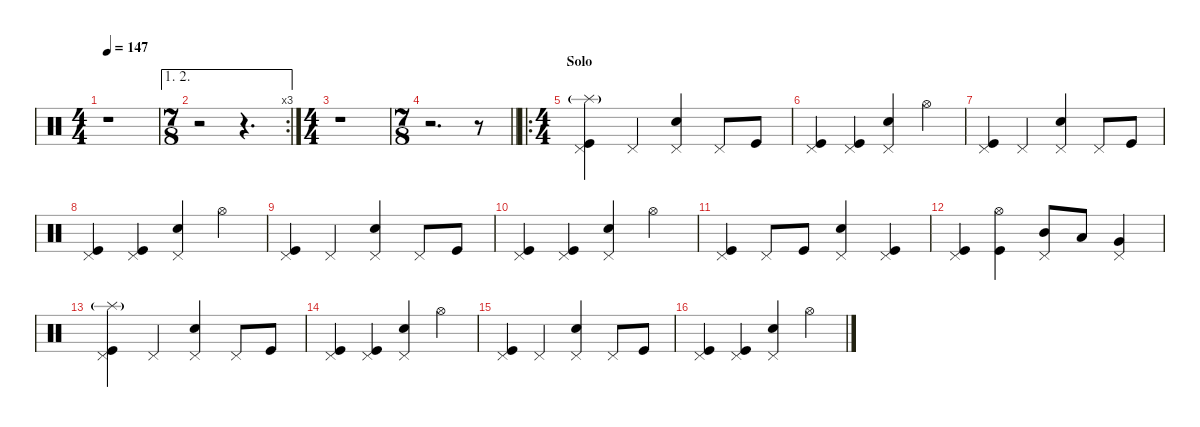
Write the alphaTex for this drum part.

\defaultSystemsLayout 4
\hideDynamics
\bracketExtendMode nobrackets
\singleTrackTrackNamePolicy hidden
\multiTrackTrackNamePolicy hidden
\firstSystemTrackNameMode fullname
\otherSystemsTrackNameOrientation horizontal
\track ("Percussion" "drm.") {instrument percussion}
\staff {score}
\articulation defaults
\ts (4 4)
\tempo 147
\clef neutral
\ks c
r.1{dy f beam Down} |
\ae (1 2)
\rc 3
\ts (7 8)
\beaming (8 3 2 2)
r.2{beam Down} r.4{d beam Down} |
\ts (4 4)
\beaming (8 2 2 2 2)
r.1{beam Down} |
\ts (7 8)
\beaming (8 3 2 2)
\barLineRight lightlight
r.2{d beam Down} r.8{beam Down} |
\ro
\ts (4 4)
\beaming (8 2 2 2 2)
\section ("" "Solo")
("Splash (hit)"{g} "Kick (hit)" "Pedal Hi-Hat (hit)").4{beam Down} "Pedal Hi-Hat (hit)".4{beam Up} ("Snare (hit) 2" "Pedal Hi-Hat (hit)").4{beam Up} "Pedal Hi-Hat (hit)".8{beam Up} "Kick (hit)".8{beam Up} |
("Kick (hit)" "Pedal Hi-Hat (hit)").4{beam Up} ("Kick (hit)" "Pedal Hi-Hat (hit)").4{beam Up} ("Snare (hit) 2" "Pedal Hi-Hat (hit)").4{beam Up} "Hi-Hat (open)".4{beam Down} |
("Kick (hit)" "Pedal Hi-Hat (hit)").4{beam Up} "Pedal Hi-Hat (hit)".4{beam Up} ("Snare (hit) 2" "Pedal Hi-Hat (hit)").4{beam Up} "Pedal Hi-Hat (hit)".8{beam Up} "Kick (hit)".8{beam Up} |
("Kick (hit)" "Pedal Hi-Hat (hit)").4{beam Up} ("Kick (hit)" "Pedal Hi-Hat (hit)").4{beam Up} ("Snare (hit) 2" "Pedal Hi-Hat (hit)").4{beam Up} "Hi-Hat (open)".4{beam Down} |
("Kick (hit)" "Pedal Hi-Hat (hit)").4{beam Up} "Pedal Hi-Hat (hit)".4{beam Up} ("Snare (hit) 2" "Pedal Hi-Hat (hit)").4{beam Up} "Pedal Hi-Hat (hit)".8{beam Up} "Kick (hit)".8{beam Up} |
("Kick (hit)" "Pedal Hi-Hat (hit)").4{beam Up} ("Kick (hit)" "Pedal Hi-Hat (hit)").4{beam Up} ("Snare (hit) 2" "Pedal Hi-Hat (hit)").4{beam Up} "Hi-Hat (open)".4{beam Down} |
("Kick (hit)" "Pedal Hi-Hat (hit)").4{beam Up} "Pedal Hi-Hat (hit)".8{beam Up} "Kick (hit)".8{beam Up} ("Snare (hit) 2" "Pedal Hi-Hat (hit)").4{beam Up} ("Kick (hit)" "Pedal Hi-Hat (hit)").4{beam Up} |
("Kick (hit)" "Pedal Hi-Hat (hit)").4{beam Up} ("Kick (hit)" "Hi-Hat (open)").4{beam Down} ("Mid Tom (hit)" "Pedal Hi-Hat (hit)").8{beam Up} "Low Tom (hit)".8{dy mf beam Up} ("Very Low Tom (hit)" "Pedal Hi-Hat (hit)").4{dy f beam Up} |
("Splash (hit)"{g} "Kick (hit)" "Pedal Hi-Hat (hit)").4{beam Down} "Pedal Hi-Hat (hit)".4{beam Up} ("Snare (hit) 2" "Pedal Hi-Hat (hit)").4{beam Up} "Pedal Hi-Hat (hit)".8{beam Up} "Kick (hit)".8{beam Up} |
("Kick (hit)" "Pedal Hi-Hat (hit)").4{beam Up} ("Kick (hit)" "Pedal Hi-Hat (hit)").4{beam Up} ("Snare (hit) 2" "Pedal Hi-Hat (hit)").4{beam Up} "Hi-Hat (open)".4{beam Down} |
("Kick (hit)" "Pedal Hi-Hat (hit)").4{beam Up} "Pedal Hi-Hat (hit)".4{beam Up} ("Snare (hit) 2" "Pedal Hi-Hat (hit)").4{beam Up} "Pedal Hi-Hat (hit)".8{beam Up} "Kick (hit)".8{beam Up} |
("Kick (hit)" "Pedal Hi-Hat (hit)").4{beam Up} ("Kick (hit)" "Pedal Hi-Hat (hit)").4{beam Up} ("Snare (hit) 2" "Pedal Hi-Hat (hit)").4{beam Up} "Hi-Hat (open)".4{beam Down}
